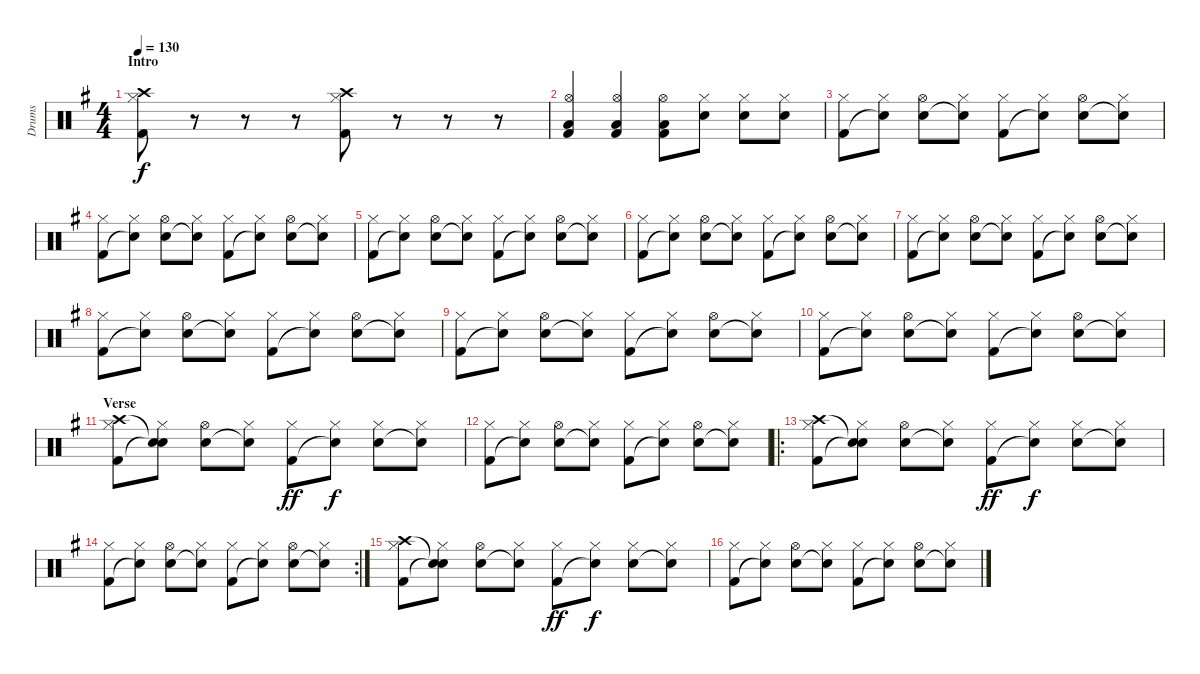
\track ("Drums" "Drums") {instrument percussion}
\staff {score}
\articulation defaults
\ts (4 4)
\section ("" "Intro")
\tempo 130
\clef neutral
\ks g
("Hi-Hat (closed)" "Crash high (hit)" "Kick (hit) 2").8{dy f} r.8 r.8 r.8 ("Hi-Hat (closed)" "Crash high (hit)" "Kick (hit) 2").8 r.8 r.8 r.8 |
("Hi-Hat (open)" "Low Floor Tom (hit)" "Kick (hit) 2").4 ("Hi-Hat (open)" "Low Floor Tom (hit)" "Kick (hit) 2").4 ("Hi-Hat (open)" "Low Floor Tom (hit)" "Kick (hit) 2").8 ("Hi-Hat (closed)" "Electric Snare (hit)").8 ("Hi-Hat (closed)" "Electric Snare (hit)").8 ("Hi-Hat (closed)" "Electric Snare (hit)").8 |
("Hi-Hat (closed)" "Kick (hit) 2").8 ("Hi-Hat (closed)" "Snare (hit)"{t}).8 ("Hi-Hat (open)" "Electric Snare (hit)").8 ("Hi-Hat (closed)" "Snare (hit)"{t}).8 ("Hi-Hat (closed)" "Kick (hit) 2").8 ("Hi-Hat (closed)" "Snare (hit)"{t}).8 ("Hi-Hat (open)" "Electric Snare (hit)").8 ("Hi-Hat (closed)" "Snare (hit)"{t}).8 |
("Hi-Hat (closed)" "Kick (hit) 2").8 ("Hi-Hat (closed)" "Snare (hit)"{t}).8 ("Hi-Hat (open)" "Electric Snare (hit)").8 ("Hi-Hat (closed)" "Snare (hit)"{t}).8 ("Hi-Hat (closed)" "Kick (hit) 2").8 ("Hi-Hat (closed)" "Snare (hit)"{t}).8 ("Hi-Hat (open)" "Electric Snare (hit)").8 ("Hi-Hat (closed)" "Snare (hit)"{t}).8 |
("Hi-Hat (closed)" "Kick (hit) 2").8 ("Hi-Hat (closed)" "Snare (hit)"{t}).8 ("Hi-Hat (open)" "Electric Snare (hit)").8 ("Hi-Hat (closed)" "Snare (hit)"{t}).8 ("Hi-Hat (closed)" "Kick (hit) 2").8 ("Hi-Hat (closed)" "Snare (hit)"{t}).8 ("Hi-Hat (open)" "Electric Snare (hit)").8 ("Hi-Hat (closed)" "Snare (hit)"{t}).8 |
("Hi-Hat (closed)" "Kick (hit) 2").8 ("Hi-Hat (closed)" "Snare (hit)"{t}).8 ("Hi-Hat (open)" "Electric Snare (hit)").8 ("Hi-Hat (closed)" "Snare (hit)"{t}).8 ("Hi-Hat (closed)" "Kick (hit) 2").8 ("Hi-Hat (closed)" "Snare (hit)"{t}).8 ("Hi-Hat (open)" "Electric Snare (hit)").8 ("Hi-Hat (closed)" "Snare (hit)"{t}).8 |
("Hi-Hat (closed)" "Kick (hit) 2").8 ("Hi-Hat (closed)" "Snare (hit)"{t}).8 ("Hi-Hat (open)" "Electric Snare (hit)").8 ("Hi-Hat (closed)" "Snare (hit)"{t}).8 ("Hi-Hat (closed)" "Kick (hit) 2").8 ("Hi-Hat (closed)" "Snare (hit)"{t}).8 ("Hi-Hat (open)" "Electric Snare (hit)").8 ("Hi-Hat (closed)" "Snare (hit)"{t}).8 |
("Hi-Hat (closed)" "Kick (hit) 2").8 ("Hi-Hat (closed)" "Snare (hit)"{t}).8 ("Hi-Hat (open)" "Electric Snare (hit)").8 ("Hi-Hat (closed)" "Snare (hit)"{t}).8 ("Hi-Hat (closed)" "Kick (hit) 2").8 ("Hi-Hat (closed)" "Snare (hit)"{t}).8 ("Hi-Hat (open)" "Electric Snare (hit)").8 ("Hi-Hat (closed)" "Snare (hit)"{t}).8 |
("Hi-Hat (closed)" "Kick (hit) 2").8 ("Hi-Hat (closed)" "Snare (hit)"{t}).8 ("Hi-Hat (open)" "Electric Snare (hit)").8 ("Hi-Hat (closed)" "Snare (hit)"{t}).8 ("Hi-Hat (closed)" "Kick (hit) 2").8 ("Hi-Hat (closed)" "Snare (hit)"{t}).8 ("Hi-Hat (open)" "Electric Snare (hit)").8 ("Hi-Hat (closed)" "Snare (hit)"{t}).8 |
("Hi-Hat (closed)" "Kick (hit) 2").8 ("Hi-Hat (closed)" "Snare (hit)"{t}).8 ("Hi-Hat (open)" "Electric Snare (hit)").8 ("Hi-Hat (closed)" "Snare (hit)"{t}).8 ("Hi-Hat (closed)" "Kick (hit) 2").8 ("Hi-Hat (closed)" "Snare (hit)"{t}).8 ("Hi-Hat (open)" "Electric Snare (hit)").8 ("Hi-Hat (closed)" "Snare (hit)"{t}).8 |
\section ("" "Verse")
("Hi-Hat (closed)" "Crash high (hit)" "Kick (hit) 2").8 ("Hi-Hat (closed)" "Snare (hit)"{t} "Snare (hit)"{t}).8 ("Hi-Hat (open)" "Electric Snare (hit)").8 ("Hi-Hat (closed)" "Snare (hit)"{t}).8 ("Hi-Hat (closed)" "Kick (hit) 2").8{dy ff} ("Hi-Hat (closed)" "Snare (hit)"{t}).8{dy f} ("Hi-Hat (closed)" "Electric Snare (hit)").8 ("Hi-Hat (closed)" "Snare (hit)"{t}).8 |
("Hi-Hat (closed)" "Kick (hit) 2").8 ("Hi-Hat (closed)" "Snare (hit)"{t}).8 ("Hi-Hat (open)" "Electric Snare (hit)").8 ("Hi-Hat (closed)" "Snare (hit)"{t}).8 ("Hi-Hat (closed)" "Kick (hit) 2").8 ("Hi-Hat (closed)" "Snare (hit)"{t}).8 ("Hi-Hat (open)" "Electric Snare (hit)").8 ("Hi-Hat (closed)" "Snare (hit)"{t}).8 |
\ro
("Hi-Hat (closed)" "Crash high (hit)" "Kick (hit) 2").8 ("Hi-Hat (closed)" "Snare (hit)"{t} "Snare (hit)"{t}).8 ("Hi-Hat (open)" "Electric Snare (hit)").8 ("Hi-Hat (closed)" "Snare (hit)"{t}).8 ("Hi-Hat (closed)" "Kick (hit) 2").8{dy ff} ("Hi-Hat (closed)" "Snare (hit)"{t}).8{dy f} ("Hi-Hat (closed)" "Electric Snare (hit)").8 ("Hi-Hat (closed)" "Snare (hit)"{t}).8 |
\rc 2
("Hi-Hat (closed)" "Kick (hit) 2").8 ("Hi-Hat (closed)" "Snare (hit)"{t}).8 ("Hi-Hat (open)" "Electric Snare (hit)").8 ("Hi-Hat (closed)" "Snare (hit)"{t}).8 ("Hi-Hat (closed)" "Kick (hit) 2").8 ("Hi-Hat (closed)" "Snare (hit)"{t}).8 ("Hi-Hat (open)" "Electric Snare (hit)").8 ("Hi-Hat (closed)" "Snare (hit)"{t}).8 |
("Hi-Hat (closed)" "Crash high (hit)" "Kick (hit) 2").8 ("Hi-Hat (closed)" "Snare (hit)"{t} "Snare (hit)"{t}).8 ("Hi-Hat (open)" "Electric Snare (hit)").8 ("Hi-Hat (closed)" "Snare (hit)"{t}).8 ("Hi-Hat (closed)" "Kick (hit) 2").8{dy ff} ("Hi-Hat (closed)" "Snare (hit)"{t}).8{dy f} ("Hi-Hat (closed)" "Electric Snare (hit)").8 ("Hi-Hat (closed)" "Snare (hit)"{t}).8 |
("Hi-Hat (closed)" "Kick (hit) 2").8 ("Hi-Hat (closed)" "Snare (hit)"{t}).8 ("Hi-Hat (open)" "Electric Snare (hit)").8 ("Hi-Hat (closed)" "Snare (hit)"{t}).8 ("Hi-Hat (closed)" "Kick (hit) 2").8 ("Hi-Hat (closed)" "Snare (hit)"{t}).8 ("Hi-Hat (open)" "Electric Snare (hit)").8 ("Hi-Hat (closed)" "Snare (hit)"{t}).8
